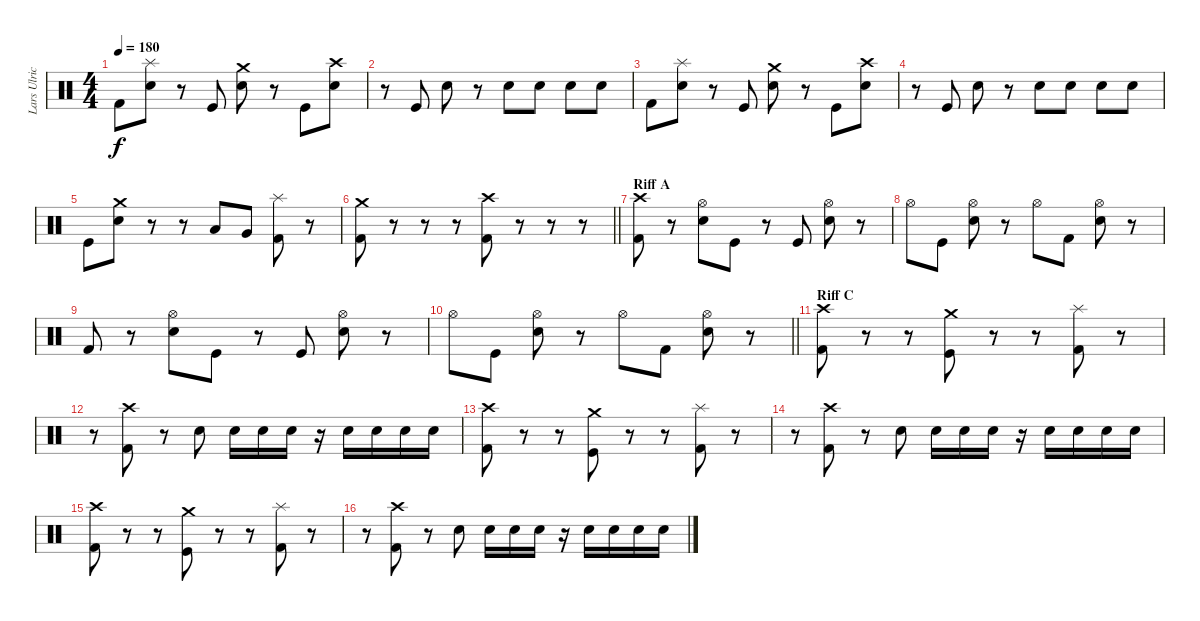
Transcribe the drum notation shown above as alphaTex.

\track ("Lars Ulrich" "Lars Ulric") {instrument percussion}
\staff {score}
\articulation defaults
\ts (4 4)
\tempo 180
\clef neutral
\ks c "Kick (hit) 2".8{dy f}
("Splash (hit)" "Electric Snare (hit)").8 r.8 "Kick (hit)".8 ("Crash medium (hit)" "Electric Snare (hit)").8 r.8 "Kick (hit)".8 ("Crash high (hit)" "Electric Snare (hit)").8 |
r.8 "Kick (hit)".8 "Electric Snare (hit)".8 r.8 "Electric Snare (hit)".8 "Electric Snare (hit)".8 "Electric Snare (hit)".8 "Electric Snare (hit)".8 |
"Kick (hit) 2".8 ("Splash (hit)" "Electric Snare (hit)").8 r.8 "Kick (hit)".8 ("Crash medium (hit)" "Electric Snare (hit)").8 r.8 "Kick (hit)".8 ("Crash high (hit)" "Electric Snare (hit)").8 |
r.8 "Kick (hit)".8 "Electric Snare (hit)".8 r.8 "Electric Snare (hit)".8 "Electric Snare (hit)".8 "Electric Snare (hit)".8 "Electric Snare (hit)".8 |
"Kick (hit)".8 ("Crash medium (hit)" "Electric Snare (hit)").8 r.8 r.8 "Low Tom (hit)".8 "Very Low Tom (hit)".8 ("Splash (hit)" "Kick (hit) 2").8 r.8 |
\barLineRight lightlight
("Crash medium (hit)" "Kick (hit) 2").8 r.8 r.8 r.8 ("Crash high (hit)" "Kick (hit) 2").8 r.8 r.8 r.8 |
\section ("" "Riff A")
("Crash high (hit)" "Kick (hit) 2").8 r.8 ("Hi-Hat (open)" "Electric Snare (hit)").8 "Kick (hit)".8 r.8 "Kick (hit)".8 ("Hi-Hat (open)" "Electric Snare (hit)").8 r.8 |
"Hi-Hat (open)".8 "Kick (hit)".8 ("Hi-Hat (open)" "Electric Snare (hit)").8 r.8 "Hi-Hat (open)".8 "Kick (hit) 2".8 ("Hi-Hat (open)" "Electric Snare (hit)").8 r.8 |
"Kick (hit) 2".8 r.8 ("Hi-Hat (open)" "Electric Snare (hit)").8 "Kick (hit)".8 r.8 "Kick (hit)".8 ("Hi-Hat (open)" "Electric Snare (hit)").8 r.8 |
\barLineRight lightlight "Hi-Hat (open)".8 "Kick (hit)".8
("Hi-Hat (open)" "Electric Snare (hit)").8 r.8 "Hi-Hat (open)".8 "Kick (hit) 2".8 ("Hi-Hat (open)" "Electric Snare (hit)").8 r.8 |
\section ("" "Riff C")
("Crash high (hit)" "Kick (hit) 2").8 r.8 r.8 ("Crash medium (hit)" "Kick (hit)").8 r.8 r.8 ("Splash (hit)" "Kick (hit) 2").8 r.8 |
r.8 ("Crash high (hit)" "Kick (hit) 2").8 r.8 "Electric Snare (hit)".8 "Electric Snare (hit)".16 "Electric Snare (hit)".16 "Electric Snare (hit)".16 r.16 "Electric Snare (hit)".16 "Electric Snare (hit)".16 "Electric Snare (hit)".16 "Electric Snare (hit)".16 |
("Crash high (hit)" "Kick (hit) 2").8 r.8 r.8 ("Crash medium (hit)" "Kick (hit)").8 r.8 r.8 ("Splash (hit)" "Kick (hit) 2").8 r.8 |
r.8 ("Crash high (hit)" "Kick (hit) 2").8 r.8 "Electric Snare (hit)".8 "Electric Snare (hit)".16 "Electric Snare (hit)".16 "Electric Snare (hit)".16 r.16 "Electric Snare (hit)".16 "Electric Snare (hit)".16 "Electric Snare (hit)".16 "Electric Snare (hit)".16 |
("Crash high (hit)" "Kick (hit) 2").8 r.8 r.8 ("Crash medium (hit)" "Kick (hit)").8 r.8 r.8 ("Splash (hit)" "Kick (hit) 2").8 r.8 |
r.8 ("Crash high (hit)" "Kick (hit) 2").8 r.8 "Electric Snare (hit)".8 "Electric Snare (hit)".16 "Electric Snare (hit)".16 "Electric Snare (hit)".16 r.16 "Electric Snare (hit)".16 "Electric Snare (hit)".16 "Electric Snare (hit)".16 "Electric Snare (hit)".16
